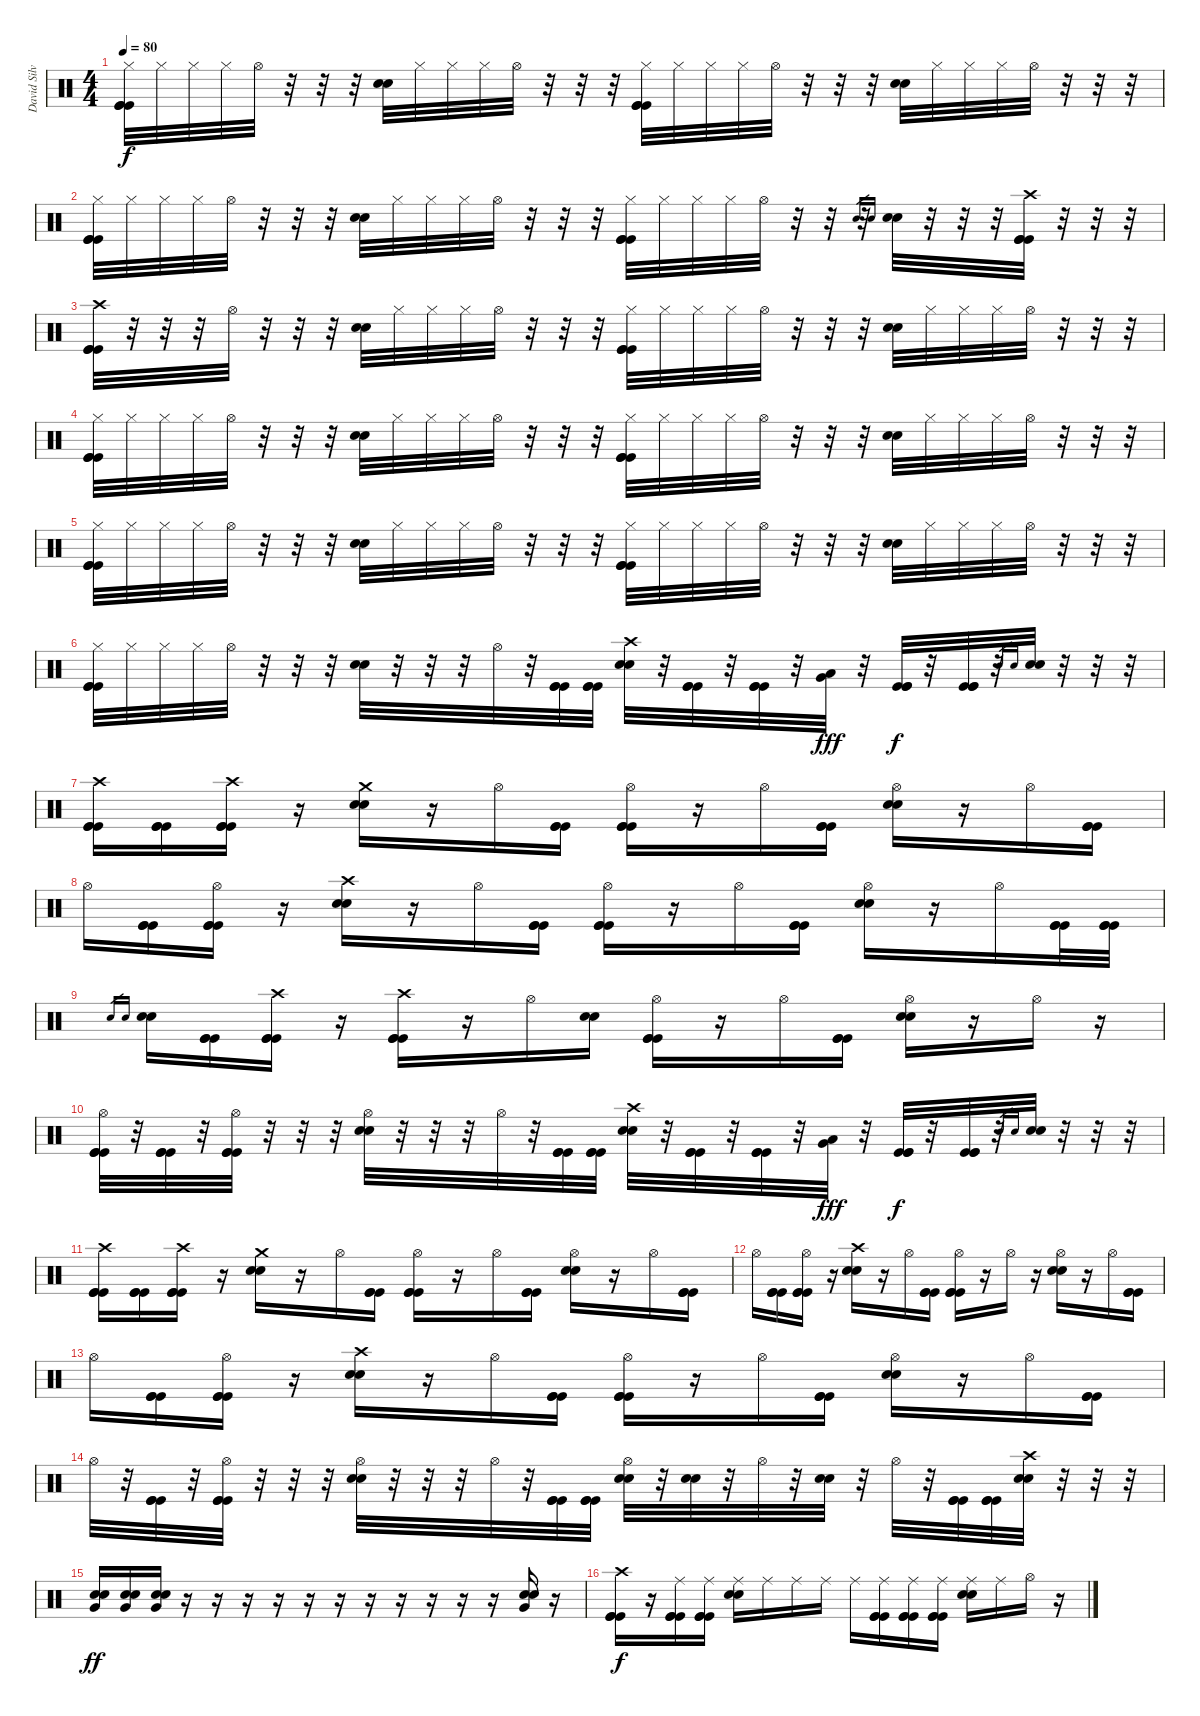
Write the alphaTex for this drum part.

\track ("David Silveria (Drums)" "David Silv") {instrument percussion}
\staff {score}
\articulation defaults
\ts (4 4)
\tempo 80
\clef neutral
\ks c
("Hi-Hat (closed)" "Kick (hit)" "Kick (hit)" "Kick (hit)").32{dy f} "Hi-Hat (closed)".32 "Hi-Hat (closed)".32 "Hi-Hat (closed)".32 "Hi-Hat (open)".32 r.32 r.32 r.32 ("Snare (hit) 2" "Snare (hit) 2").32 "Hi-Hat (closed)".32 "Hi-Hat (closed)".32 "Hi-Hat (closed)".32 "Hi-Hat (open)".32 r.32 r.32 r.32 ("Hi-Hat (closed)" "Kick (hit)" "Kick (hit)" "Kick (hit)").32 "Hi-Hat (closed)".32 "Hi-Hat (closed)".32 "Hi-Hat (closed)".32 "Hi-Hat (open)".32 r.32 r.32 r.32 ("Snare (hit) 2" "Snare (hit) 2").32 "Hi-Hat (closed)".32 "Hi-Hat (closed)".32 "Hi-Hat (closed)".32 "Hi-Hat (open)".32 r.32 r.32 r.32 |
("Hi-Hat (closed)" "Kick (hit)" "Kick (hit)" "Kick (hit)").32 "Hi-Hat (closed)".32 "Hi-Hat (closed)".32 "Hi-Hat (closed)".32 "Hi-Hat (open)".32 r.32 r.32 r.32 ("Snare (hit) 2" "Snare (hit) 2").32 "Hi-Hat (closed)".32 "Hi-Hat (closed)".32 "Hi-Hat (closed)".32 "Hi-Hat (open)".32 r.32 r.32 r.32 ("Hi-Hat (closed)" "Kick (hit)" "Kick (hit)" "Kick (hit)").32 "Hi-Hat (closed)".32 "Hi-Hat (closed)".32 "Hi-Hat (closed)".32 "Hi-Hat (open)".32 r.32 r.32 r.32 "Snare (hit) 2".16{gr} "Snare (hit) 2".16{gr} ("Snare (hit) 2" "Snare (hit) 2").32 r.32 r.32 r.32 ("Crash high (hit)" "Kick (hit)" "Kick (hit)" "Kick (hit)").32 r.32 r.32 r.32 |
("Crash high (hit)" "Kick (hit)" "Kick (hit)" "Kick (hit)").32 r.32 r.32 r.32 "Hi-Hat (open)".32 r.32 r.32 r.32 ("Snare (hit) 2" "Snare (hit) 2").32 "Hi-Hat (closed)".32 "Hi-Hat (closed)".32 "Hi-Hat (closed)".32 "Hi-Hat (open)".32 r.32 r.32 r.32 ("Hi-Hat (closed)" "Kick (hit)" "Kick (hit)" "Kick (hit)").32 "Hi-Hat (closed)".32 "Hi-Hat (closed)".32 "Hi-Hat (closed)".32 "Hi-Hat (open)".32 r.32 r.32 r.32 ("Snare (hit) 2" "Snare (hit) 2").32 "Hi-Hat (closed)".32 "Hi-Hat (closed)".32 "Hi-Hat (closed)".32 "Hi-Hat (open)".32 r.32 r.32 r.32 |
("Hi-Hat (closed)" "Kick (hit)" "Kick (hit)" "Kick (hit)").32 "Hi-Hat (closed)".32 "Hi-Hat (closed)".32 "Hi-Hat (closed)".32 "Hi-Hat (open)".32 r.32 r.32 r.32 ("Snare (hit) 2" "Snare (hit) 2").32 "Hi-Hat (closed)".32 "Hi-Hat (closed)".32 "Hi-Hat (closed)".32 "Hi-Hat (open)".32 r.32 r.32 r.32 ("Hi-Hat (closed)" "Kick (hit)" "Kick (hit)" "Kick (hit)").32 "Hi-Hat (closed)".32 "Hi-Hat (closed)".32 "Hi-Hat (closed)".32 "Hi-Hat (open)".32 r.32 r.32 r.32 ("Snare (hit) 2" "Snare (hit) 2").32 "Hi-Hat (closed)".32 "Hi-Hat (closed)".32 "Hi-Hat (closed)".32 "Hi-Hat (open)".32 r.32 r.32 r.32 |
("Hi-Hat (closed)" "Kick (hit)" "Kick (hit)" "Kick (hit)").32 "Hi-Hat (closed)".32 "Hi-Hat (closed)".32 "Hi-Hat (closed)".32 "Hi-Hat (open)".32 r.32 r.32 r.32 ("Snare (hit) 2" "Snare (hit) 2").32 "Hi-Hat (closed)".32 "Hi-Hat (closed)".32 "Hi-Hat (closed)".32 "Hi-Hat (open)".32 r.32 r.32 r.32 ("Hi-Hat (closed)" "Kick (hit)" "Kick (hit)" "Kick (hit)").32 "Hi-Hat (closed)".32 "Hi-Hat (closed)".32 "Hi-Hat (closed)".32 "Hi-Hat (open)".32 r.32 r.32 r.32 ("Snare (hit) 2" "Snare (hit) 2").32 "Hi-Hat (closed)".32 "Hi-Hat (closed)".32 "Hi-Hat (closed)".32 "Hi-Hat (open)".32 r.32 r.32 r.32 |
("Hi-Hat (closed)" "Kick (hit)" "Kick (hit)" "Kick (hit)").32 "Hi-Hat (closed)".32 "Hi-Hat (closed)".32 "Hi-Hat (closed)".32 "Hi-Hat (open)".32 r.32 r.32 r.32 ("Snare (hit) 2" "Snare (hit) 2").32 r.32 r.32 r.32 "Hi-Hat (open)".32 r.32 ("Kick (hit)" "Kick (hit)" "Kick (hit)").32 ("Kick (hit)" "Kick (hit)" "Kick (hit)").32 ("Crash high (hit)" "Snare (hit) 2" "Snare (hit) 2").32 r.32 ("Kick (hit)" "Kick (hit)" "Kick (hit)").32 r.32 ("Kick (hit)" "Kick (hit)" "Kick (hit)").32 r.32 ("Very Low Tom (hit)" "Low Tom (hit)").32{dy fff} r.32 ("Kick (hit)" "Kick (hit)" "Kick (hit)").32{dy f} r.32 ("Kick (hit)" "Kick (hit)" "Kick (hit)").32 r.32 "Snare (hit) 2".16{gr} "Snare (hit) 2".16{gr} ("Snare (hit) 2" "Snare (hit) 2").32 r.32 r.32 r.32 |
("Crash high (hit)" "Kick (hit)" "Kick (hit)" "Kick (hit)").16 ("Kick (hit)" "Kick (hit)" "Kick (hit)").16 ("Crash high (hit)" "Kick (hit)" "Kick (hit)" "Kick (hit)").16 r.16 ("Crash medium (hit)" "Snare (hit) 2" "Snare (hit) 2").16 r.16 "Hi-Hat (open)".16 ("Kick (hit)" "Kick (hit)" "Kick (hit)").16 ("Hi-Hat (open)" "Kick (hit)" "Kick (hit)" "Kick (hit)").16 r.16 "Hi-Hat (open)".16 ("Kick (hit)" "Kick (hit)" "Kick (hit)").16 ("Hi-Hat (open)" "Snare (hit) 2" "Snare (hit) 2").16 r.16 "Hi-Hat (open)".16 ("Kick (hit)" "Kick (hit)" "Kick (hit)").16 |
"Hi-Hat (open)".16 ("Kick (hit)" "Kick (hit)" "Kick (hit)").16 ("Hi-Hat (open)" "Kick (hit)" "Kick (hit)" "Kick (hit)").16 r.16 ("Crash high (hit)" "Snare (hit) 2" "Snare (hit) 2").16 r.16 "Hi-Hat (open)".16 ("Kick (hit)" "Kick (hit)" "Kick (hit)").16 ("Hi-Hat (open)" "Kick (hit)" "Kick (hit)" "Kick (hit)").16 r.16 "Hi-Hat (open)".16 ("Kick (hit)" "Kick (hit)" "Kick (hit)").16 ("Hi-Hat (open)" "Snare (hit) 2" "Snare (hit) 2").16 r.16 "Hi-Hat (open)".16 ("Kick (hit)" "Kick (hit)" "Kick (hit)").32 ("Kick (hit)" "Kick (hit)" "Kick (hit)").32 |
"Snare (hit) 2".16{gr} "Snare (hit) 2".16{gr} ("Snare (hit) 2" "Snare (hit) 2").16 ("Kick (hit)" "Kick (hit)" "Kick (hit)").16 ("Crash high (hit)" "Kick (hit)" "Kick (hit)" "Kick (hit)").16 r.16 ("Crash high (hit)" "Kick (hit)" "Kick (hit)" "Kick (hit)").16 r.16 "Hi-Hat (open)".16 ("Snare (hit) 2" "Snare (hit) 2").16 ("Hi-Hat (open)" "Kick (hit)" "Kick (hit)" "Kick (hit)").16 r.16 "Hi-Hat (open)".16 ("Kick (hit)" "Kick (hit)" "Kick (hit)").16 ("Hi-Hat (open)" "Snare (hit) 2" "Snare (hit) 2").16 r.16 "Hi-Hat (open)".16 r.16 |
("Hi-Hat (open)" "Kick (hit)" "Kick (hit)" "Kick (hit)").32 r.32 ("Kick (hit)" "Kick (hit)" "Kick (hit)").32 r.32 ("Hi-Hat (open)" "Kick (hit)" "Kick (hit)" "Kick (hit)").32 r.32 r.32 r.32 ("Hi-Hat (open)" "Snare (hit) 2" "Snare (hit) 2").32 r.32 r.32 r.32 "Hi-Hat (open)".32 r.32 ("Kick (hit)" "Kick (hit)" "Kick (hit)").32 ("Kick (hit)" "Kick (hit)" "Kick (hit)").32 ("Crash high (hit)" "Snare (hit) 2" "Snare (hit) 2").32 r.32 ("Kick (hit)" "Kick (hit)" "Kick (hit)").32 r.32 ("Kick (hit)" "Kick (hit)" "Kick (hit)").32 r.32 ("Very Low Tom (hit)" "Low Tom (hit)").32{dy fff} r.32 ("Kick (hit)" "Kick (hit)" "Kick (hit)").32{dy f} r.32 ("Kick (hit)" "Kick (hit)" "Kick (hit)").32 r.32 "Snare (hit) 2".16{gr} "Snare (hit) 2".16{gr} ("Snare (hit) 2" "Snare (hit) 2").32 r.32 r.32 r.32 |
("Crash high (hit)" "Kick (hit)" "Kick (hit)" "Kick (hit)").16 ("Kick (hit)" "Kick (hit)" "Kick (hit)").16 ("Crash high (hit)" "Kick (hit)" "Kick (hit)" "Kick (hit)").16 r.16 ("Crash medium (hit)" "Snare (hit) 2" "Snare (hit) 2").16 r.16 "Hi-Hat (open)".16 ("Kick (hit)" "Kick (hit)" "Kick (hit)").16 ("Hi-Hat (open)" "Kick (hit)" "Kick (hit)" "Kick (hit)").16 r.16 "Hi-Hat (open)".16 ("Kick (hit)" "Kick (hit)" "Kick (hit)").16 ("Hi-Hat (open)" "Snare (hit) 2" "Snare (hit) 2").16 r.16 "Hi-Hat (open)".16 ("Kick (hit)" "Kick (hit)" "Kick (hit)").16 |
"Hi-Hat (open)".16 ("Kick (hit)" "Kick (hit)" "Kick (hit)").16 ("Hi-Hat (open)" "Kick (hit)" "Kick (hit)" "Kick (hit)").16 r.16 ("Crash high (hit)" "Snare (hit) 2" "Snare (hit) 2").16 r.16 "Hi-Hat (open)".16 ("Kick (hit)" "Kick (hit)" "Kick (hit)").16 ("Hi-Hat (open)" "Kick (hit)" "Kick (hit)" "Kick (hit)").16 r.16 "Hi-Hat (open)".16 r.16 ("Hi-Hat (open)" "Snare (hit) 2" "Snare (hit) 2").16 r.16 "Hi-Hat (open)".16 ("Kick (hit)" "Kick (hit)" "Kick (hit)").16 |
"Hi-Hat (open)".16 ("Kick (hit)" "Kick (hit)" "Kick (hit)").16 ("Hi-Hat (open)" "Kick (hit)" "Kick (hit)" "Kick (hit)").16 r.16 ("Crash high (hit)" "Snare (hit) 2" "Snare (hit) 2").16 r.16 "Hi-Hat (open)".16 ("Kick (hit)" "Kick (hit)" "Kick (hit)").16 ("Hi-Hat (open)" "Kick (hit)" "Kick (hit)" "Kick (hit)").16 r.16 "Hi-Hat (open)".16 ("Kick (hit)" "Kick (hit)" "Kick (hit)").16 ("Hi-Hat (open)" "Snare (hit) 2" "Snare (hit) 2").16 r.16 "Hi-Hat (open)".16 ("Kick (hit)" "Kick (hit)" "Kick (hit)").16 |
"Hi-Hat (open)".32 r.32 ("Kick (hit)" "Kick (hit)" "Kick (hit)").32 r.32 ("Hi-Hat (open)" "Kick (hit)" "Kick (hit)" "Kick (hit)").32 r.32 r.32 r.32 ("Hi-Hat (open)" "Snare (hit) 2" "Snare (hit) 2").32 r.32 r.32 r.32 "Hi-Hat (open)".32 r.32 ("Kick (hit)" "Kick (hit)" "Kick (hit)").32 ("Kick (hit)" "Kick (hit)" "Kick (hit)").32 ("Hi-Hat (open)" "Snare (hit) 2" "Snare (hit) 2").32 r.32 ("Snare (hit) 2" "Snare (hit) 2").32 r.32 "Hi-Hat (open)".32 r.32 ("Snare (hit) 2" "Snare (hit) 2").32 r.32 "Hi-Hat (open)".32 r.32 ("Kick (hit)" "Kick (hit)" "Kick (hit)").32 ("Kick (hit)" "Kick (hit)" "Kick (hit)").32 ("Crash high (hit)" "Snare (hit) 2" "Snare (hit) 2").32 r.32 r.32 r.32 |
("Very Low Tom (hit)" "Snare (hit) 2" "Snare (hit) 2").16{dy ff} ("Very Low Tom (hit)" "Snare (hit) 2" "Snare (hit) 2").16 ("Very Low Tom (hit)" "Snare (hit) 2" "Snare (hit) 2").16 r.16 r.16 r.16 r.16 r.16 r.16 r.16 r.16 r.16 r.16 r.16 ("Very Low Tom (hit)" "Snare (hit) 2" "Snare (hit) 2").16 r.16 |
("Crash high (hit)" "Kick (hit)" "Kick (hit)" "Kick (hit)").16{dy f} r.16 ("Ride (middle)" "Kick (hit)" "Kick (hit)" "Kick (hit)").16 ("Ride (middle)" "Kick (hit)" "Kick (hit)" "Kick (hit)").16 ("Ride (middle)" "Snare (hit) 2" "Snare (hit) 2").16 "Ride (middle)".16 "Ride (middle)".16 "Ride (middle)".16 "Ride (middle)".16 ("Ride (middle)" "Kick (hit)" "Kick (hit)" "Kick (hit)").16 ("Ride (middle)" "Kick (hit)" "Kick (hit)" "Kick (hit)").16 ("Ride (middle)" "Kick (hit)" "Kick (hit)" "Kick (hit)").16 ("Ride (middle)" "Snare (hit) 2" "Snare (hit) 2").16 "Ride (middle)".16 "Hi-Hat (open)".16 r.16
